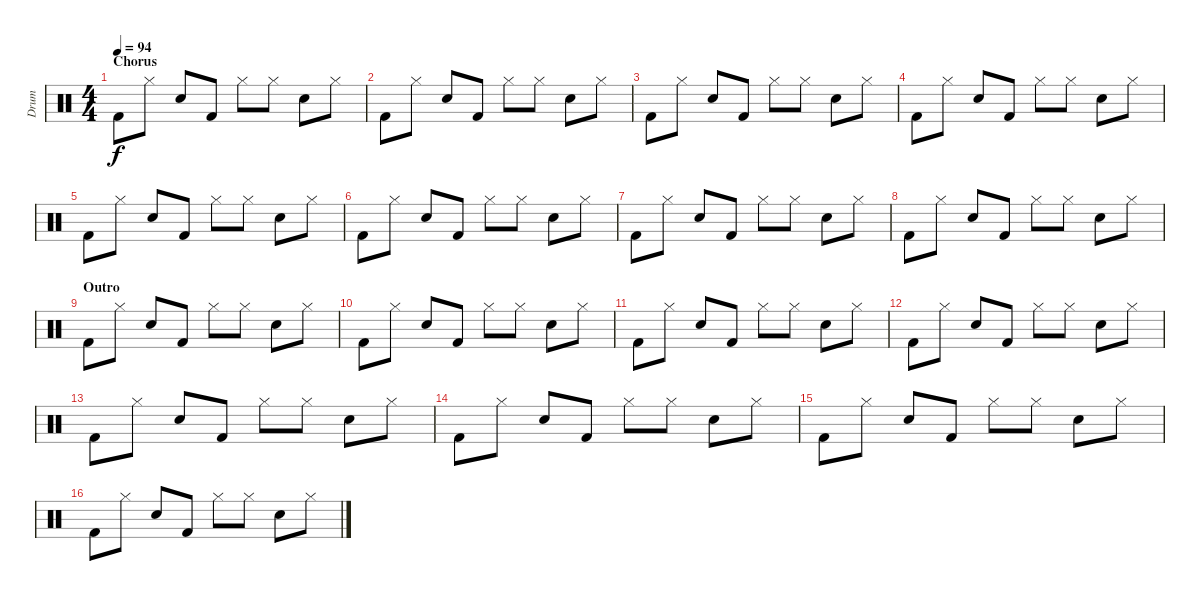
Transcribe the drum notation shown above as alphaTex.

\track ("Drum" "Drum") {instrument percussion}
\staff {score}
\articulation defaults
\ts (4 4)
\section ("" "Chorus")
\tempo 94
\clef neutral
\ks c "Kick (hit) 2".8{dy f} "Hi-Hat (closed)".8 "Electric Snare (hit)".8 "Kick (hit) 2".8 "Hi-Hat (closed)".8 "Hi-Hat (closed)".8 "Electric Snare (hit)".8 "Hi-Hat (closed)".8
|
"Kick (hit) 2".8 "Hi-Hat (closed)".8 "Electric Snare (hit)".8 "Kick (hit) 2".8 "Hi-Hat (closed)".8 "Hi-Hat (closed)".8 "Electric Snare (hit)".8 "Hi-Hat (closed)".8 |
"Kick (hit) 2".8 "Hi-Hat (closed)".8 "Electric Snare (hit)".8 "Kick (hit) 2".8 "Hi-Hat (closed)".8 "Hi-Hat (closed)".8 "Electric Snare (hit)".8 "Hi-Hat (closed)".8 |
"Kick (hit) 2".8 "Hi-Hat (closed)".8 "Electric Snare (hit)".8 "Kick (hit) 2".8 "Hi-Hat (closed)".8 "Hi-Hat (closed)".8 "Electric Snare (hit)".8 "Hi-Hat (closed)".8 |
"Kick (hit) 2".8 "Hi-Hat (closed)".8 "Electric Snare (hit)".8 "Kick (hit) 2".8 "Hi-Hat (closed)".8 "Hi-Hat (closed)".8 "Electric Snare (hit)".8 "Hi-Hat (closed)".8 |
"Kick (hit) 2".8 "Hi-Hat (closed)".8 "Electric Snare (hit)".8 "Kick (hit) 2".8 "Hi-Hat (closed)".8 "Hi-Hat (closed)".8 "Electric Snare (hit)".8 "Hi-Hat (closed)".8 |
"Kick (hit) 2".8 "Hi-Hat (closed)".8 "Electric Snare (hit)".8 "Kick (hit) 2".8 "Hi-Hat (closed)".8 "Hi-Hat (closed)".8 "Electric Snare (hit)".8 "Hi-Hat (closed)".8 |
"Kick (hit) 2".8 "Hi-Hat (closed)".8 "Electric Snare (hit)".8 "Kick (hit) 2".8 "Hi-Hat (closed)".8 "Hi-Hat (closed)".8 "Electric Snare (hit)".8 "Hi-Hat (closed)".8 |
\section ("" "Outro")
"Kick (hit) 2".8 "Hi-Hat (closed)".8 "Electric Snare (hit)".8 "Kick (hit) 2".8 "Hi-Hat (closed)".8 "Hi-Hat (closed)".8 "Electric Snare (hit)".8 "Hi-Hat (closed)".8 |
"Kick (hit) 2".8 "Hi-Hat (closed)".8 "Electric Snare (hit)".8 "Kick (hit) 2".8 "Hi-Hat (closed)".8 "Hi-Hat (closed)".8 "Electric Snare (hit)".8 "Hi-Hat (closed)".8 |
"Kick (hit) 2".8 "Hi-Hat (closed)".8 "Electric Snare (hit)".8 "Kick (hit) 2".8 "Hi-Hat (closed)".8 "Hi-Hat (closed)".8 "Electric Snare (hit)".8 "Hi-Hat (closed)".8 |
"Kick (hit) 2".8 "Hi-Hat (closed)".8 "Electric Snare (hit)".8 "Kick (hit) 2".8 "Hi-Hat (closed)".8 "Hi-Hat (closed)".8 "Electric Snare (hit)".8 "Hi-Hat (closed)".8 |
"Kick (hit) 2".8 "Hi-Hat (closed)".8 "Electric Snare (hit)".8 "Kick (hit) 2".8 "Hi-Hat (closed)".8 "Hi-Hat (closed)".8 "Electric Snare (hit)".8 "Hi-Hat (closed)".8 |
"Kick (hit) 2".8 "Hi-Hat (closed)".8 "Electric Snare (hit)".8 "Kick (hit) 2".8 "Hi-Hat (closed)".8 "Hi-Hat (closed)".8 "Electric Snare (hit)".8 "Hi-Hat (closed)".8 |
"Kick (hit) 2".8 "Hi-Hat (closed)".8 "Electric Snare (hit)".8 "Kick (hit) 2".8 "Hi-Hat (closed)".8 "Hi-Hat (closed)".8 "Electric Snare (hit)".8 "Hi-Hat (closed)".8 |
"Kick (hit) 2".8 "Hi-Hat (closed)".8 "Electric Snare (hit)".8 "Kick (hit) 2".8 "Hi-Hat (closed)".8 "Hi-Hat (closed)".8 "Electric Snare (hit)".8 "Hi-Hat (closed)".8
